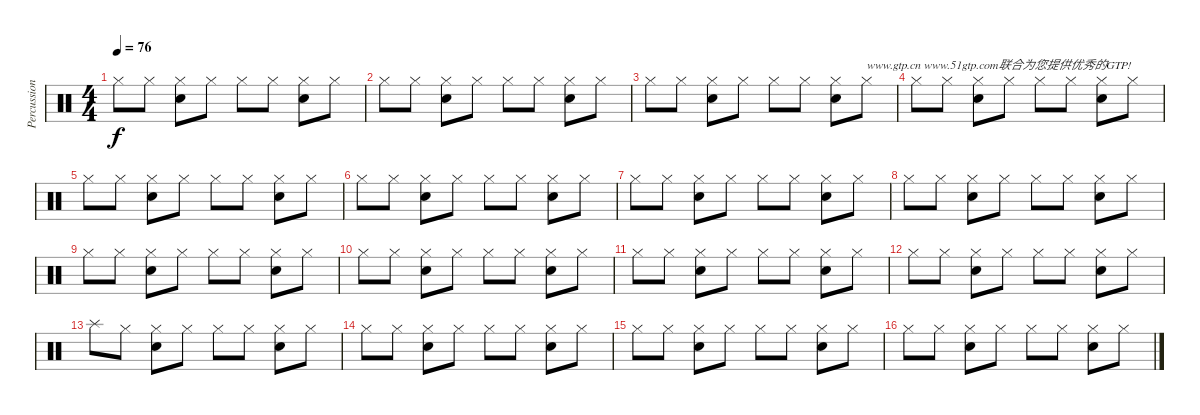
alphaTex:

\track ("Percussions" "Percussion") {instrument percussion}
\staff {score}
\articulation defaults
\ts (4 4)
\tempo 76
\clef neutral
\ks c "Hi-Hat (closed)".8{dy f} "Hi-Hat (closed)".8
("Hi-Hat (closed)" "Electric Snare (hit)").8 "Hi-Hat (closed)".8 "Hi-Hat (closed)".8 "Hi-Hat (closed)".8 ("Hi-Hat (closed)" "Electric Snare (hit)").8 "Hi-Hat (closed)".8 |
"Hi-Hat (closed)".8 "Hi-Hat (closed)".8 ("Hi-Hat (closed)" "Electric Snare (hit)").8 "Hi-Hat (closed)".8 "Hi-Hat (closed)".8 "Hi-Hat (closed)".8 ("Hi-Hat (closed)" "Electric Snare (hit)").8 "Hi-Hat (closed)".8 |
"Hi-Hat (closed)".8 "Hi-Hat (closed)".8 ("Hi-Hat (closed)" "Electric Snare (hit)").8 "Hi-Hat (closed)".8 "Hi-Hat (closed)".8 "Hi-Hat (closed)".8 ("Hi-Hat (closed)" "Electric Snare (hit)").8 "Hi-Hat (closed)".8{txt "www.gtp.cn www.51gtp.com联合为您提供优秀的GTP!"} |
"Hi-Hat (closed)".8 "Hi-Hat (closed)".8 ("Hi-Hat (closed)" "Electric Snare (hit)").8 "Hi-Hat (closed)".8 "Hi-Hat (closed)".8 "Hi-Hat (closed)".8 ("Hi-Hat (closed)" "Electric Snare (hit)").8 "Hi-Hat (closed)".8 |
"Hi-Hat (closed)".8 "Hi-Hat (closed)".8 ("Hi-Hat (closed)" "Electric Snare (hit)").8 "Hi-Hat (closed)".8 "Hi-Hat (closed)".8 "Hi-Hat (closed)".8 ("Hi-Hat (closed)" "Electric Snare (hit)").8 "Hi-Hat (closed)".8 |
"Hi-Hat (closed)".8 "Hi-Hat (closed)".8 ("Hi-Hat (closed)" "Electric Snare (hit)").8 "Hi-Hat (closed)".8 "Hi-Hat (closed)".8 "Hi-Hat (closed)".8 ("Hi-Hat (closed)" "Electric Snare (hit)").8 "Hi-Hat (closed)".8 |
"Hi-Hat (closed)".8 "Hi-Hat (closed)".8 ("Hi-Hat (closed)" "Electric Snare (hit)").8 "Hi-Hat (closed)".8 "Hi-Hat (closed)".8 "Hi-Hat (closed)".8 ("Hi-Hat (closed)" "Electric Snare (hit)").8 "Hi-Hat (closed)".8 |
"Hi-Hat (closed)".8 "Hi-Hat (closed)".8 ("Hi-Hat (closed)" "Electric Snare (hit)").8 "Hi-Hat (closed)".8 "Hi-Hat (closed)".8 "Hi-Hat (closed)".8 ("Hi-Hat (closed)" "Electric Snare (hit)").8 "Hi-Hat (closed)".8 |
"Hi-Hat (closed)".8 "Hi-Hat (closed)".8 ("Hi-Hat (closed)" "Electric Snare (hit)").8 "Hi-Hat (closed)".8 "Hi-Hat (closed)".8 "Hi-Hat (closed)".8 ("Hi-Hat (closed)" "Electric Snare (hit)").8 "Hi-Hat (closed)".8 |
"Hi-Hat (closed)".8 "Hi-Hat (closed)".8 ("Hi-Hat (closed)" "Electric Snare (hit)").8 "Hi-Hat (closed)".8 "Hi-Hat (closed)".8 "Hi-Hat (closed)".8 ("Hi-Hat (closed)" "Electric Snare (hit)").8 "Hi-Hat (closed)".8 |
"Hi-Hat (closed)".8 "Hi-Hat (closed)".8 ("Hi-Hat (closed)" "Electric Snare (hit)").8 "Hi-Hat (closed)".8 "Hi-Hat (closed)".8 "Hi-Hat (closed)".8 ("Hi-Hat (closed)" "Electric Snare (hit)").8 "Hi-Hat (closed)".8 |
"Hi-Hat (closed)".8 "Hi-Hat (closed)".8 ("Hi-Hat (closed)" "Electric Snare (hit)").8 "Hi-Hat (closed)".8 "Hi-Hat (closed)".8 "Hi-Hat (closed)".8 ("Hi-Hat (closed)" "Electric Snare (hit)").8 "Hi-Hat (closed)".8 |
"Splash (hit)".8 "Hi-Hat (closed)".8 ("Hi-Hat (closed)" "Electric Snare (hit)").8 "Hi-Hat (closed)".8 "Hi-Hat (closed)".8 "Hi-Hat (closed)".8 ("Hi-Hat (closed)" "Electric Snare (hit)").8 "Hi-Hat (closed)".8 |
"Hi-Hat (closed)".8 "Hi-Hat (closed)".8 ("Hi-Hat (closed)" "Electric Snare (hit)").8 "Hi-Hat (closed)".8 "Hi-Hat (closed)".8 "Hi-Hat (closed)".8 ("Hi-Hat (closed)" "Electric Snare (hit)").8 "Hi-Hat (closed)".8 |
"Hi-Hat (closed)".8 "Hi-Hat (closed)".8 ("Hi-Hat (closed)" "Electric Snare (hit)").8 "Hi-Hat (closed)".8 "Hi-Hat (closed)".8 "Hi-Hat (closed)".8 ("Hi-Hat (closed)" "Electric Snare (hit)").8 "Hi-Hat (closed)".8 |
"Hi-Hat (closed)".8 "Hi-Hat (closed)".8 ("Hi-Hat (closed)" "Electric Snare (hit)").8 "Hi-Hat (closed)".8 "Hi-Hat (closed)".8 "Hi-Hat (closed)".8 ("Hi-Hat (closed)" "Electric Snare (hit)").8 "Hi-Hat (closed)".8
